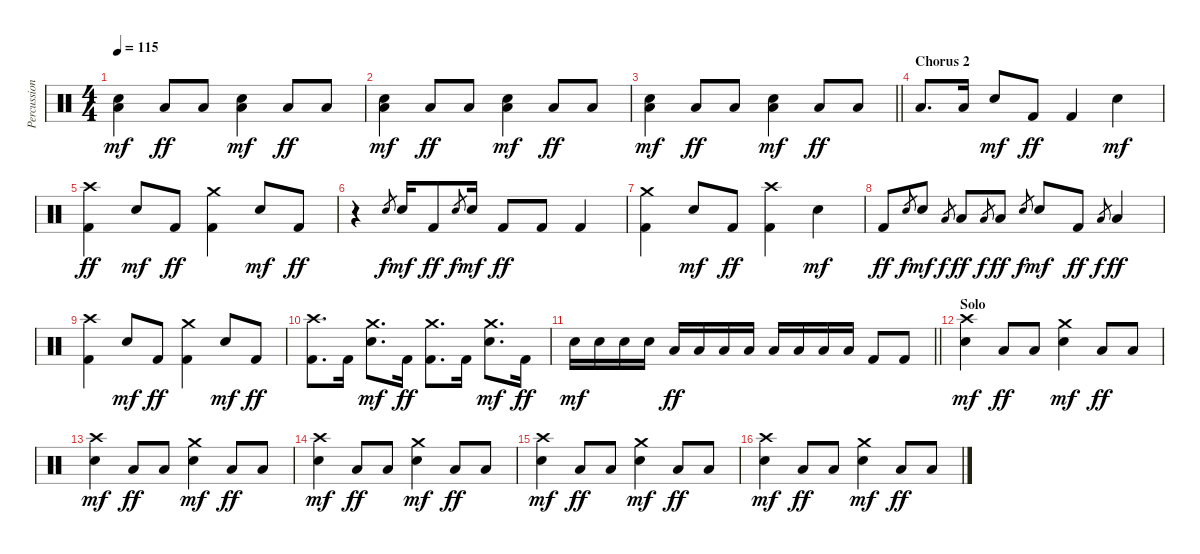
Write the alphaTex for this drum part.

\track ("Percussion" "Percussion") {instrument percussion}
\staff {score}
\articulation defaults
\ts (4 4)
\tempo 115
\clef neutral
\ks c
("Low Floor Tom (hit)" "Snare (hit) 2").4{dy mf} "Low Floor Tom (hit)".8{dy ff} "Low Floor Tom (hit)".8 ("Low Floor Tom (hit)" "Snare (hit) 2").4{dy mf} "Low Floor Tom (hit)".8{dy ff} "Low Floor Tom (hit)".8 |
("Low Floor Tom (hit)" "Snare (hit) 2").4{dy mf} "Low Floor Tom (hit)".8{dy ff} "Low Floor Tom (hit)".8 ("Low Floor Tom (hit)" "Snare (hit) 2").4{dy mf} "Low Floor Tom (hit)".8{dy ff} "Low Floor Tom (hit)".8 |
\barLineRight lightlight
("Low Floor Tom (hit)" "Snare (hit) 2").4{dy mf} "Low Floor Tom (hit)".8{dy ff} "Low Floor Tom (hit)".8 ("Low Floor Tom (hit)" "Snare (hit) 2").4{dy mf} "Low Floor Tom (hit)".8{dy ff} "Low Floor Tom (hit)".8 |
\section ("" "Chorus 2")
"Low Floor Tom (hit)".8{d} "Low Floor Tom (hit)".16 "Snare (hit) 2".8{dy mf} "Kick (hit) 2".8{dy ff} "Kick (hit) 2".4 "Snare (hit) 2".4{dy mf} |
("Crash high (hit)" "Kick (hit) 2").4{dy ff} "Snare (hit) 2".8{dy mf} "Kick (hit) 2".8{dy ff} ("Crash medium (hit)" "Kick (hit) 2").4 "Snare (hit) 2".8{dy mf} "Kick (hit) 2".8{dy ff} |
r.4 "Snare (hit) 2".8{gr dy f} "Snare (hit) 2".16{dy mf} "Kick (hit) 2".8{dy ff} "Snare (hit) 2".8{gr dy f} "Snare (hit) 2".16{dy mf} "Kick (hit) 2".8{dy ff} "Kick (hit) 2".8 "Kick (hit) 2".4 |
("Crash medium (hit)" "Kick (hit) 2").4 "Snare (hit) 2".8{dy mf} "Kick (hit) 2".8{dy ff} ("Crash high (hit)" "Kick (hit) 2").4 "Snare (hit) 2".4{dy mf} |
"Kick (hit) 2".8{dy ff} "Snare (hit) 2".8{gr dy f} "Snare (hit) 2".8{dy mf} "Low Tom (hit)".8{gr dy f} "Low Tom (hit)".8{dy ff} "Low Floor Tom (hit)".8{gr dy f} "Low Floor Tom (hit)".8{dy ff} "Snare (hit) 2".8{gr dy f} "Snare (hit) 2".8{dy mf} "Kick (hit) 2".8{dy ff} "Low Floor Tom (hit)".8{gr dy f} "Low Floor Tom (hit)".4{dy ff} |
("Crash high (hit)" "Kick (hit) 2").4 "Snare (hit) 2".8{dy mf} "Kick (hit) 2".8{dy ff} ("Crash medium (hit)" "Kick (hit) 2").4 "Snare (hit) 2".8{dy mf} "Kick (hit) 2".8{dy ff} |
("Crash high (hit)" "Kick (hit) 2").8{d} "Kick (hit) 2".16 ("Crash medium (hit)" "Snare (hit) 2").8{d dy mf} "Kick (hit) 2".16{dy ff} ("Crash medium (hit)" "Kick (hit) 2").8{d} "Kick (hit) 2".16 ("Crash medium (hit)" "Snare (hit) 2").8{d dy mf} "Kick (hit) 2".16{dy ff} |
\barLineRight lightlight "Snare (hit) 2".16{dy mf} "Snare (hit) 2".16 "Snare (hit) 2".16 "Snare (hit) 2".16 "Low Tom (hit)".16{dy ff} "Low Tom (hit)".16 "Low Tom (hit)".16 "Low Tom (hit)".16 "Low Floor Tom (hit)".16 "Low Floor Tom (hit)".16 "Low Floor Tom (hit)".16 "Low Floor Tom (hit)".16 "Kick (hit) 2".8 "Kick (hit) 2".8
|
\section ("" "Solo")
("Crash high (hit)" "Snare (hit) 2").4{dy mf} "Low Floor Tom (hit)".8{dy ff} "Low Floor Tom (hit)".8 ("Crash medium (hit)" "Snare (hit) 2").4{dy mf} "Low Floor Tom (hit)".8{dy ff} "Low Floor Tom (hit)".8 |
("Crash high (hit)" "Snare (hit) 2").4{dy mf} "Low Floor Tom (hit)".8{dy ff} "Low Floor Tom (hit)".8 ("Crash medium (hit)" "Snare (hit) 2").4{dy mf} "Low Floor Tom (hit)".8{dy ff} "Low Floor Tom (hit)".8 |
("Crash high (hit)" "Snare (hit) 2").4{dy mf} "Low Floor Tom (hit)".8{dy ff} "Low Floor Tom (hit)".8 ("Crash medium (hit)" "Snare (hit) 2").4{dy mf} "Low Floor Tom (hit)".8{dy ff} "Low Floor Tom (hit)".8 |
("Crash high (hit)" "Snare (hit) 2").4{dy mf} "Low Floor Tom (hit)".8{dy ff} "Low Floor Tom (hit)".8 ("Crash medium (hit)" "Snare (hit) 2").4{dy mf} "Low Floor Tom (hit)".8{dy ff} "Low Floor Tom (hit)".8 |
("Crash high (hit)" "Snare (hit) 2").4{dy mf} "Low Floor Tom (hit)".8{dy ff} "Low Floor Tom (hit)".8 ("Crash medium (hit)" "Snare (hit) 2").4{dy mf} "Low Floor Tom (hit)".8{dy ff} "Low Floor Tom (hit)".8
